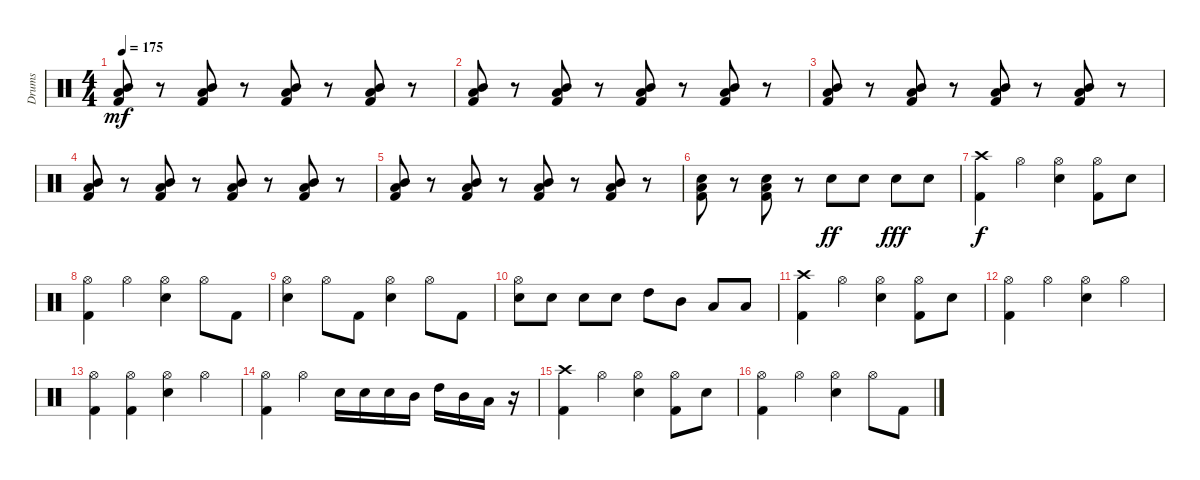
\track ("Drums" "Drums") {instrument percussion}
\staff {score}
\articulation defaults
\ts (4 4)
\tempo 175
\clef neutral
\ks c
("Mid Tom (hit)" "Low Tom (hit)" "Kick (hit) 2").8{dy mf} r.8 ("Mid Tom (hit)" "Low Tom (hit)" "Kick (hit) 2").8 r.8 ("Mid Tom (hit)" "Low Tom (hit)" "Kick (hit) 2").8 r.8 ("Mid Tom (hit)" "Low Tom (hit)" "Kick (hit) 2").8 r.8 |
("Mid Tom (hit)" "Low Tom (hit)" "Kick (hit) 2").8 r.8 ("Mid Tom (hit)" "Low Tom (hit)" "Kick (hit) 2").8 r.8 ("Mid Tom (hit)" "Low Tom (hit)" "Kick (hit) 2").8 r.8 ("Mid Tom (hit)" "Low Tom (hit)" "Kick (hit) 2").8 r.8 |
("Mid Tom (hit)" "Low Tom (hit)" "Kick (hit) 2").8 r.8 ("Mid Tom (hit)" "Low Tom (hit)" "Kick (hit) 2").8 r.8 ("Mid Tom (hit)" "Low Tom (hit)" "Kick (hit) 2").8 r.8 ("Mid Tom (hit)" "Low Tom (hit)" "Kick (hit) 2").8 r.8 |
("Mid Tom (hit)" "Low Tom (hit)" "Kick (hit) 2").8 r.8 ("Mid Tom (hit)" "Low Tom (hit)" "Kick (hit) 2").8 r.8 ("Mid Tom (hit)" "Low Tom (hit)" "Kick (hit) 2").8 r.8 ("Mid Tom (hit)" "Low Tom (hit)" "Kick (hit) 2").8 r.8 |
("Mid Tom (hit)" "Low Tom (hit)" "Kick (hit) 2").8 r.8 ("Mid Tom (hit)" "Low Tom (hit)" "Kick (hit) 2").8 r.8 ("Mid Tom (hit)" "Low Tom (hit)" "Kick (hit) 2").8 r.8 ("Mid Tom (hit)" "Low Tom (hit)" "Kick (hit) 2").8 r.8 |
("Snare (hit) 2" "Low Tom (hit)" "Kick (hit) 2").8 r.8 ("Snare (hit) 2" "Low Tom (hit)" "Kick (hit) 2").8 r.8 "Snare (hit) 2".8{dy ff} "Snare (hit) 2".8 "Snare (hit) 2".8{dy fff} "Snare (hit) 2".8 |
("Crash high (hit)" "Kick (hit) 2").4{dy f} "Hi-Hat (open)".4 ("Hi-Hat (open)" "Snare (hit) 2").4 ("Hi-Hat (open)" "Kick (hit) 2").8 "Snare (hit) 2".8 |
("Hi-Hat (open)" "Kick (hit) 2").4 "Hi-Hat (open)".4 ("Hi-Hat (open)" "Snare (hit) 2").4 "Hi-Hat (open)".8 "Kick (hit) 2".8 |
("Hi-Hat (open)" "Snare (hit) 2").4 "Hi-Hat (open)".8 "Kick (hit) 2".8 ("Hi-Hat (open)" "Snare (hit) 2").4 "Hi-Hat (open)".8 "Kick (hit) 2".8 |
("Hi-Hat (open)" "Snare (hit) 2").8 "Snare (hit) 2".8 "Snare (hit) 2".8 "Snare (hit) 2".8 "High Tom (hit)".8 "Mid Tom (hit)".8 "Low Tom (hit)".8 "Low Tom (hit)".8 |
("Crash high (hit)" "Kick (hit) 2").4 "Hi-Hat (open)".4 ("Hi-Hat (open)" "Snare (hit) 2").4 ("Hi-Hat (open)" "Kick (hit) 2").8 "Snare (hit) 2".8 |
("Hi-Hat (open)" "Kick (hit) 2").4 "Hi-Hat (open)".4 ("Hi-Hat (open)" "Snare (hit) 2").4 "Hi-Hat (open)".4 |
("Hi-Hat (open)" "Kick (hit) 2").4 ("Hi-Hat (open)" "Kick (hit) 2").4 ("Hi-Hat (open)" "Snare (hit) 2").4 "Hi-Hat (open)".4 |
("Hi-Hat (open)" "Kick (hit) 2").4 "Hi-Hat (open)".4 "Snare (hit) 2".16 "Snare (hit) 2".16 "Snare (hit) 2".16 "Mid Tom (hit)".16 "High Tom (hit)".16 "Mid Tom (hit)".16 "Low Tom (hit)".16 r.16 |
("Crash high (hit)" "Kick (hit) 2").4 "Hi-Hat (open)".4 ("Hi-Hat (open)" "Snare (hit) 2").4 ("Hi-Hat (open)" "Kick (hit) 2").8 "Snare (hit) 2".8 |
("Hi-Hat (open)" "Kick (hit) 2").4 "Hi-Hat (open)".4 ("Hi-Hat (open)" "Snare (hit) 2").4 "Hi-Hat (open)".8 "Kick (hit) 2".8
